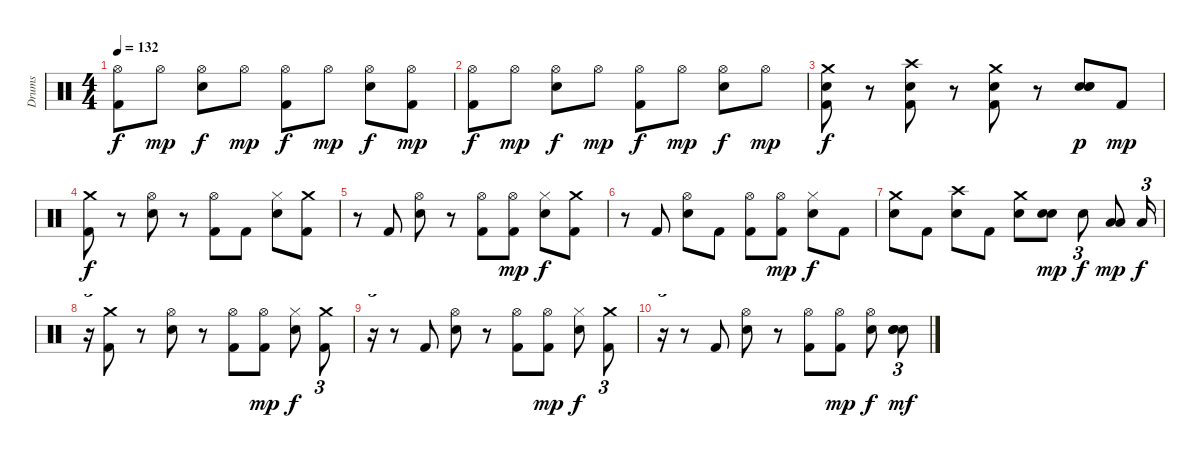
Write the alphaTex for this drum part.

\track ("Drums" "Drums") {instrument percussion}
\staff {score}
\articulation defaults
\ts (4 4)
\tempo 132
\clef neutral
\ks c
("Hi-Hat (open)" "Kick (hit) 2").8{dy f} "Hi-Hat (open)".8{dy mp} ("Hi-Hat (open)" "Electric Snare (hit)").8{dy f} "Hi-Hat (open)".8{dy mp} ("Hi-Hat (open)" "Kick (hit) 2").8{dy f} "Hi-Hat (open)".8{dy mp} ("Hi-Hat (open)" "Electric Snare (hit)").8{dy f} ("Kick (hit) 2" "Hi-Hat (open)").8{dy mp} |
("Hi-Hat (open)" "Kick (hit) 2").8{dy f} "Hi-Hat (open)".8{dy mp} ("Hi-Hat (open)" "Electric Snare (hit)").8{dy f} "Hi-Hat (open)".8{dy mp} ("Hi-Hat (open)" "Kick (hit) 2").8{dy f} "Hi-Hat (open)".8{dy mp} ("Hi-Hat (open)" "Electric Snare (hit)").8{dy f} "Hi-Hat (open)".8{dy mp} |
("Electric Snare (hit)" "Crash medium (hit)" "Kick (hit) 2").8{dy f} r.8 ("Electric Snare (hit)" "Crash high (hit)" "Kick (hit) 2").8 r.8 ("Electric Snare (hit)" "Crash medium (hit)" "Kick (hit) 2").8 r.8 ("Electric Snare (hit)" "Snare (hit) 2" "Electric Snare (hit)").8{dy p} "Kick (hit) 2".8{dy mp} |
("Crash medium (hit)" "Kick (hit) 2").8{dy f} r.8 ("Hi-Hat (open)" "Electric Snare (hit)").8 r.8 ("Hi-Hat (open)" "Kick (hit) 2").8 "Kick (hit) 2".8 ("Hi-Hat (closed)" "Electric Snare (hit)").8 ("Crash medium (hit)" "Kick (hit) 2").8 |
r.8 "Kick (hit) 2".8 ("Hi-Hat (open)" "Electric Snare (hit)").8 r.8 ("Hi-Hat (open)" "Kick (hit) 2").8 ("Hi-Hat (open)" "Kick (hit) 2").8{dy mp} ("Hi-Hat (closed)" "Electric Snare (hit)").8{dy f} ("Kick (hit) 2" "Crash medium (hit)").8 |
r.8 "Kick (hit) 2".8 ("Hi-Hat (open)" "Electric Snare (hit)").8 "Kick (hit) 2".8 ("Hi-Hat (open)" "Kick (hit) 2").8 ("Hi-Hat (open)" "Kick (hit) 2").8{dy mp} ("Hi-Hat (closed)" "Electric Snare (hit)").8{dy f} "Kick (hit) 2".8 |
("Crash medium (hit)" "Electric Snare (hit)").8 "Kick (hit) 2".8 ("Crash high (hit)" "Electric Snare (hit)").8 "Kick (hit) 2".8 ("Crash medium (hit)" "Electric Snare (hit)").8 ("Electric Snare (hit)" "Electric Snare (hit)").8{dy mp} "Electric Snare (hit)".8{tu (3 2) dy f} ("Low Floor Tom (hit)" "Low Floor Tom (hit)").8{dy mp} "Low Floor Tom (hit)".16{tu (3 2) dy f} |
r.16{tu (3 2)} ("Crash medium (hit)" "Kick (hit) 2").8 r.8 ("Hi-Hat (open)" "Electric Snare (hit)").8 r.8 ("Hi-Hat (open)" "Kick (hit) 2").8 ("Hi-Hat (open)" "Kick (hit) 2").8{dy mp} ("Hi-Hat (closed)" "Electric Snare (hit)").8{dy f} ("Crash medium (hit)" "Kick (hit) 2").8{tu (3 2)} |
r.16{tu (3 2)} r.8 "Kick (hit) 2".8 ("Hi-Hat (open)" "Electric Snare (hit)").8 r.8 ("Hi-Hat (open)" "Kick (hit) 2").8 ("Hi-Hat (open)" "Kick (hit) 2").8{dy mp} ("Hi-Hat (closed)" "Electric Snare (hit)").8{dy f} ("Kick (hit) 2" "Crash medium (hit)").8{tu (3 2)} |
r.16{tu (3 2)} r.8 "Kick (hit) 2".8 ("Hi-Hat (open)" "Electric Snare (hit)").8 r.8 ("Hi-Hat (open)" "Kick (hit) 2").8 ("Hi-Hat (open)" "Kick (hit) 2").8{dy mp} ("Hi-Hat (open)" "Electric Snare (hit)").8{dy f} ("Electric Snare (hit)" "Electric Snare (hit)" "Electric Snare (hit)").8{tu (3 2) dy mf}
